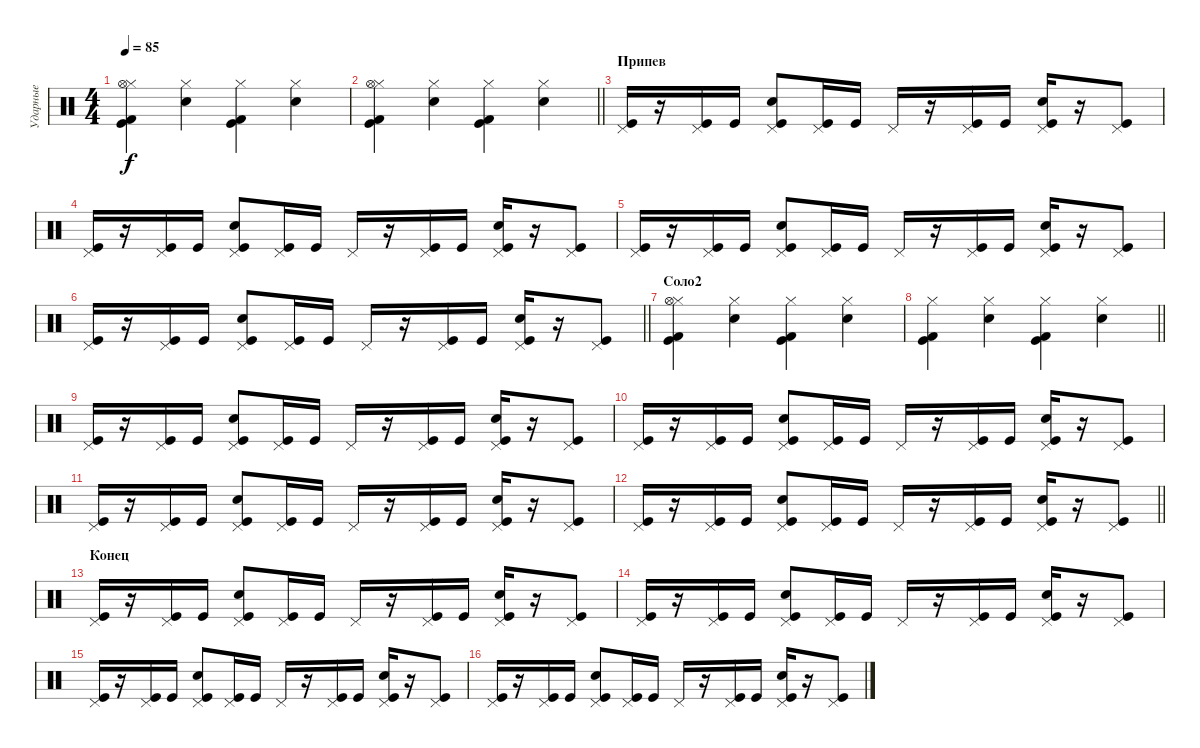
\track ("Ударные" "Ударные") {instrument percussion}
\staff {score}
\articulation defaults
\ts (4 4)
\tempo 85
\clef neutral
\ks c
("Hi-Hat (closed)" "Hi-Hat (open)" "Kick (hit)" "Kick (hit) 2").4{dy f} ("Hi-Hat (closed)" "Electric Snare (hit)").4 ("Hi-Hat (closed)" "Kick (hit)" "Kick (hit) 2").4 ("Hi-Hat (closed)" "Electric Snare (hit)").4 |
\barLineRight lightlight
("Hi-Hat (closed)" "Hi-Hat (open)" "Kick (hit)" "Kick (hit) 2").4 ("Hi-Hat (closed)" "Electric Snare (hit)").4 ("Hi-Hat (closed)" "Kick (hit)" "Kick (hit) 2").4 ("Hi-Hat (closed)" "Electric Snare (hit)").4 |
\section ("" "Припев")
("Kick (hit)" "Pedal Hi-Hat (hit)").16 r.16 ("Kick (hit)" "Pedal Hi-Hat (hit)").16 "Kick (hit)".16 ("Kick (hit)" "Pedal Hi-Hat (hit)" "Electric Snare (hit)").8 ("Kick (hit)" "Pedal Hi-Hat (hit)").16 "Kick (hit)".16 "Pedal Hi-Hat (hit)".16 r.16 ("Kick (hit)" "Pedal Hi-Hat (hit)").16 "Kick (hit)".16 ("Kick (hit)" "Pedal Hi-Hat (hit)" "Electric Snare (hit)").16 r.16 ("Kick (hit)" "Pedal Hi-Hat (hit)").8 |
("Kick (hit)" "Pedal Hi-Hat (hit)").16 r.16 ("Kick (hit)" "Pedal Hi-Hat (hit)").16 "Kick (hit)".16 ("Kick (hit)" "Pedal Hi-Hat (hit)" "Electric Snare (hit)").8 ("Kick (hit)" "Pedal Hi-Hat (hit)").16 "Kick (hit)".16 "Pedal Hi-Hat (hit)".16 r.16 ("Kick (hit)" "Pedal Hi-Hat (hit)").16 "Kick (hit)".16 ("Kick (hit)" "Pedal Hi-Hat (hit)" "Electric Snare (hit)").16 r.16 ("Kick (hit)" "Pedal Hi-Hat (hit)").8 |
("Kick (hit)" "Pedal Hi-Hat (hit)").16 r.16 ("Kick (hit)" "Pedal Hi-Hat (hit)").16 "Kick (hit)".16 ("Kick (hit)" "Pedal Hi-Hat (hit)" "Electric Snare (hit)").8 ("Kick (hit)" "Pedal Hi-Hat (hit)").16 "Kick (hit)".16 "Pedal Hi-Hat (hit)".16 r.16 ("Kick (hit)" "Pedal Hi-Hat (hit)").16 "Kick (hit)".16 ("Kick (hit)" "Pedal Hi-Hat (hit)" "Electric Snare (hit)").16 r.16 ("Kick (hit)" "Pedal Hi-Hat (hit)").8 |
\barLineRight lightlight
("Kick (hit)" "Pedal Hi-Hat (hit)").16 r.16 ("Kick (hit)" "Pedal Hi-Hat (hit)").16 "Kick (hit)".16 ("Kick (hit)" "Pedal Hi-Hat (hit)" "Electric Snare (hit)").8 ("Kick (hit)" "Pedal Hi-Hat (hit)").16 "Kick (hit)".16 "Pedal Hi-Hat (hit)".16 r.16 ("Kick (hit)" "Pedal Hi-Hat (hit)").16 "Kick (hit)".16 ("Kick (hit)" "Pedal Hi-Hat (hit)" "Electric Snare (hit)").16 r.16 ("Kick (hit)" "Pedal Hi-Hat (hit)").8 |
\section ("" "Соло2")
("Hi-Hat (closed)" "Hi-Hat (open)" "Kick (hit)" "Kick (hit) 2").4 ("Hi-Hat (closed)" "Electric Snare (hit)").4 ("Hi-Hat (closed)" "Kick (hit)" "Kick (hit) 2").4 ("Hi-Hat (closed)" "Electric Snare (hit)").4 |
\barLineRight lightlight
("Hi-Hat (closed)" "Kick (hit)" "Kick (hit) 2").4 ("Hi-Hat (closed)" "Electric Snare (hit)").4 ("Hi-Hat (closed)" "Kick (hit)" "Kick (hit) 2").4 ("Hi-Hat (closed)" "Electric Snare (hit)").4 |
("Kick (hit)" "Pedal Hi-Hat (hit)").16 r.16 ("Kick (hit)" "Pedal Hi-Hat (hit)").16 "Kick (hit)".16 ("Kick (hit)" "Pedal Hi-Hat (hit)" "Electric Snare (hit)").8 ("Kick (hit)" "Pedal Hi-Hat (hit)").16 "Kick (hit)".16 "Pedal Hi-Hat (hit)".16 r.16 ("Kick (hit)" "Pedal Hi-Hat (hit)").16 "Kick (hit)".16 ("Kick (hit)" "Pedal Hi-Hat (hit)" "Electric Snare (hit)").16 r.16 ("Kick (hit)" "Pedal Hi-Hat (hit)").8 |
("Kick (hit)" "Pedal Hi-Hat (hit)").16 r.16 ("Kick (hit)" "Pedal Hi-Hat (hit)").16 "Kick (hit)".16 ("Kick (hit)" "Pedal Hi-Hat (hit)" "Electric Snare (hit)").8 ("Kick (hit)" "Pedal Hi-Hat (hit)").16 "Kick (hit)".16 "Pedal Hi-Hat (hit)".16 r.16 ("Kick (hit)" "Pedal Hi-Hat (hit)").16 "Kick (hit)".16 ("Kick (hit)" "Pedal Hi-Hat (hit)" "Electric Snare (hit)").16 r.16 ("Kick (hit)" "Pedal Hi-Hat (hit)").8 |
("Kick (hit)" "Pedal Hi-Hat (hit)").16 r.16 ("Kick (hit)" "Pedal Hi-Hat (hit)").16 "Kick (hit)".16 ("Kick (hit)" "Pedal Hi-Hat (hit)" "Electric Snare (hit)").8 ("Kick (hit)" "Pedal Hi-Hat (hit)").16 "Kick (hit)".16 "Pedal Hi-Hat (hit)".16 r.16 ("Kick (hit)" "Pedal Hi-Hat (hit)").16 "Kick (hit)".16 ("Kick (hit)" "Pedal Hi-Hat (hit)" "Electric Snare (hit)").16 r.16 ("Kick (hit)" "Pedal Hi-Hat (hit)").8 |
\barLineRight lightlight
("Kick (hit)" "Pedal Hi-Hat (hit)").16 r.16 ("Kick (hit)" "Pedal Hi-Hat (hit)").16 "Kick (hit)".16 ("Kick (hit)" "Pedal Hi-Hat (hit)" "Electric Snare (hit)").8 ("Kick (hit)" "Pedal Hi-Hat (hit)").16 "Kick (hit)".16 "Pedal Hi-Hat (hit)".16 r.16 ("Kick (hit)" "Pedal Hi-Hat (hit)").16 "Kick (hit)".16 ("Kick (hit)" "Pedal Hi-Hat (hit)" "Electric Snare (hit)").16 r.16 ("Kick (hit)" "Pedal Hi-Hat (hit)").8 |
\section ("" "Конец")
("Kick (hit)" "Pedal Hi-Hat (hit)").16 r.16 ("Kick (hit)" "Pedal Hi-Hat (hit)").16 "Kick (hit)".16 ("Kick (hit)" "Pedal Hi-Hat (hit)" "Electric Snare (hit)").8 ("Kick (hit)" "Pedal Hi-Hat (hit)").16 "Kick (hit)".16 "Pedal Hi-Hat (hit)".16 r.16 ("Kick (hit)" "Pedal Hi-Hat (hit)").16 "Kick (hit)".16 ("Kick (hit)" "Pedal Hi-Hat (hit)" "Electric Snare (hit)").16 r.16 ("Kick (hit)" "Pedal Hi-Hat (hit)").8 |
("Kick (hit)" "Pedal Hi-Hat (hit)").16 r.16 ("Kick (hit)" "Pedal Hi-Hat (hit)").16 "Kick (hit)".16 ("Kick (hit)" "Pedal Hi-Hat (hit)" "Electric Snare (hit)").8 ("Kick (hit)" "Pedal Hi-Hat (hit)").16 "Kick (hit)".16 "Pedal Hi-Hat (hit)".16 r.16 ("Kick (hit)" "Pedal Hi-Hat (hit)").16 "Kick (hit)".16 ("Kick (hit)" "Pedal Hi-Hat (hit)" "Electric Snare (hit)").16 r.16 ("Kick (hit)" "Pedal Hi-Hat (hit)").8 |
("Kick (hit)" "Pedal Hi-Hat (hit)").16 r.16 ("Kick (hit)" "Pedal Hi-Hat (hit)").16 "Kick (hit)".16 ("Kick (hit)" "Pedal Hi-Hat (hit)" "Electric Snare (hit)").8 ("Kick (hit)" "Pedal Hi-Hat (hit)").16 "Kick (hit)".16 "Pedal Hi-Hat (hit)".16 r.16 ("Kick (hit)" "Pedal Hi-Hat (hit)").16 "Kick (hit)".16 ("Kick (hit)" "Pedal Hi-Hat (hit)" "Electric Snare (hit)").16 r.16 ("Kick (hit)" "Pedal Hi-Hat (hit)").8 |
("Kick (hit)" "Pedal Hi-Hat (hit)").16 r.16 ("Kick (hit)" "Pedal Hi-Hat (hit)").16 "Kick (hit)".16 ("Kick (hit)" "Pedal Hi-Hat (hit)" "Electric Snare (hit)").8 ("Kick (hit)" "Pedal Hi-Hat (hit)").16 "Kick (hit)".16 "Pedal Hi-Hat (hit)".16 r.16 ("Kick (hit)" "Pedal Hi-Hat (hit)").16 "Kick (hit)".16 ("Kick (hit)" "Pedal Hi-Hat (hit)" "Electric Snare (hit)").16 r.16 ("Kick (hit)" "Pedal Hi-Hat (hit)").8
